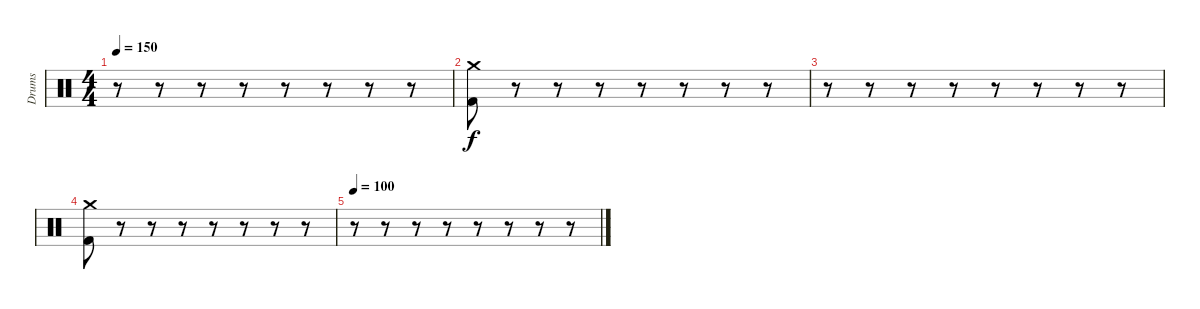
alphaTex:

\track ("Drums" "Drums") {instrument percussion}
\staff {score}
\articulation defaults
\ts (4 4)
\tempo 150
\clef neutral
\ks c
r.8{dy f} r.8 r.8 r.8 r.8 r.8 r.8 r.8 |
("Crash medium (hit)" "Kick (hit) 2").8 r.8 r.8 r.8 r.8 r.8 r.8 r.8 |
r.8 r.8 r.8 r.8 r.8 r.8 r.8 r.8 |
("Crash medium (hit)" "Kick (hit) 2").8 r.8 r.8 r.8 r.8 r.8 r.8 r.8 |
\tempo 100
r.8 r.8 r.8 r.8 r.8 r.8 r.8 r.8
